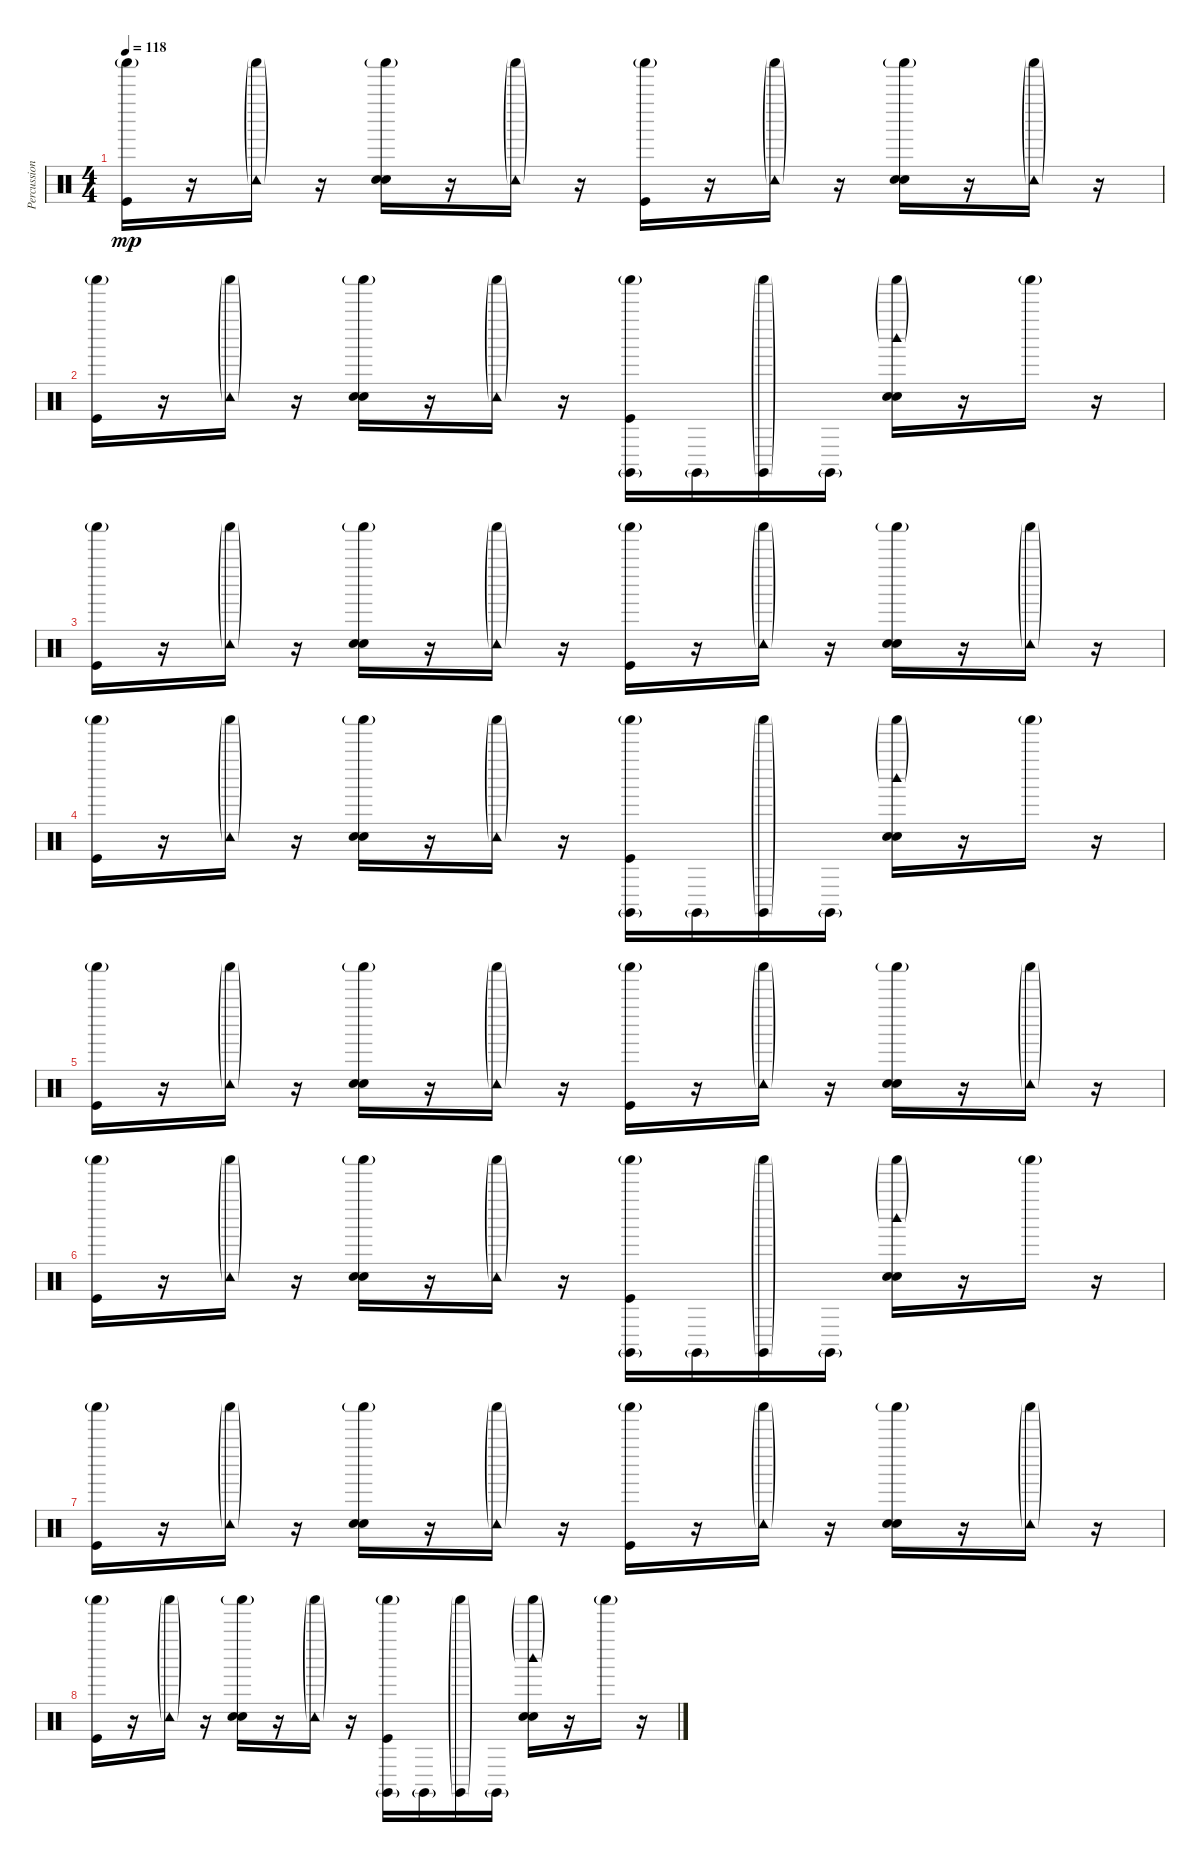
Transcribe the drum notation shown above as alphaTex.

\track ("Percussion" "Percussion") {instrument percussion}
\staff {score}
\articulation defaults
\ts (4 4)
\tempo 118
\clef neutral
\ks c
("Shaker (hit)"{g} "Kick (hit)").16{dy mp} r.16 ("Shaker (hit)"{g} "Tambourine (hit)"{g}).16 r.16 ("Shaker (hit)"{g} "Hand Clap (hit)" "Snare (hit) 2").16 r.16 ("Shaker (hit)"{g} "Tambourine (hit)"{g}).16 r.16 ("Shaker (hit)"{g} "Kick (hit)").16 r.16 ("Shaker (hit)"{g} "Tambourine (hit)"{g}).16 r.16 ("Shaker (hit)"{g} "Hand Clap (hit)" "Snare (hit) 2").16 r.16 ("Shaker (hit)"{g} "Tambourine (hit)"{g}).16 r.16 |
("Shaker (hit)"{g} "Kick (hit)").16 r.16 ("Shaker (hit)"{g} "Tambourine (hit)"{g}).16 r.16 ("Shaker (hit)"{g} "Hand Clap (hit)" "Snare (hit) 2").16 r.16 ("Shaker (hit)"{g} "Tambourine (hit)"{g}).16 r.16 ("Shaker (hit)"{g} "Claves (hit)"{g} "Kick (hit)").16 "Claves (hit)"{g}.16 ("Shaker (hit)"{g} "Claves (hit)"{g}).16 "Claves (hit)"{g}.16 ("Shaker (hit)"{g} "Woodblock high (hit)"{g} "Hand Clap (hit)" "Snare (hit) 2").16 r.16 "Shaker (hit)"{g}.16 r.16 |
("Shaker (hit)"{g} "Kick (hit)").16 r.16 ("Shaker (hit)"{g} "Tambourine (hit)"{g}).16 r.16 ("Shaker (hit)"{g} "Hand Clap (hit)" "Snare (hit) 2").16 r.16 ("Shaker (hit)"{g} "Tambourine (hit)"{g}).16 r.16 ("Shaker (hit)"{g} "Kick (hit)").16 r.16 ("Shaker (hit)"{g} "Tambourine (hit)"{g}).16 r.16 ("Shaker (hit)"{g} "Hand Clap (hit)" "Snare (hit) 2").16 r.16 ("Shaker (hit)"{g} "Tambourine (hit)"{g}).16 r.16 |
("Shaker (hit)"{g} "Kick (hit)").16 r.16 ("Shaker (hit)"{g} "Tambourine (hit)"{g}).16 r.16 ("Shaker (hit)"{g} "Hand Clap (hit)" "Snare (hit) 2").16 r.16 ("Shaker (hit)"{g} "Tambourine (hit)"{g}).16 r.16 ("Shaker (hit)"{g} "Claves (hit)"{g} "Kick (hit)").16 "Claves (hit)"{g}.16 ("Shaker (hit)"{g} "Claves (hit)"{g}).16 "Claves (hit)"{g}.16 ("Shaker (hit)"{g} "Woodblock high (hit)"{g} "Hand Clap (hit)" "Snare (hit) 2").16 r.16 "Shaker (hit)"{g}.16 r.16 |
("Shaker (hit)"{g} "Kick (hit)").16 r.16 ("Shaker (hit)"{g} "Tambourine (hit)"{g}).16 r.16 ("Shaker (hit)"{g} "Hand Clap (hit)" "Snare (hit) 2").16 r.16 ("Shaker (hit)"{g} "Tambourine (hit)"{g}).16 r.16 ("Shaker (hit)"{g} "Kick (hit)").16 r.16 ("Shaker (hit)"{g} "Tambourine (hit)"{g}).16 r.16 ("Shaker (hit)"{g} "Hand Clap (hit)" "Snare (hit) 2").16 r.16 ("Shaker (hit)"{g} "Tambourine (hit)"{g}).16 r.16 |
("Shaker (hit)"{g} "Kick (hit)").16 r.16 ("Shaker (hit)"{g} "Tambourine (hit)"{g}).16 r.16 ("Shaker (hit)"{g} "Hand Clap (hit)" "Snare (hit) 2").16 r.16 ("Shaker (hit)"{g} "Tambourine (hit)"{g}).16 r.16 ("Shaker (hit)"{g} "Claves (hit)"{g} "Kick (hit)").16 "Claves (hit)"{g}.16 ("Shaker (hit)"{g} "Claves (hit)"{g}).16 "Claves (hit)"{g}.16 ("Shaker (hit)"{g} "Woodblock high (hit)"{g} "Hand Clap (hit)" "Snare (hit) 2").16 r.16 "Shaker (hit)"{g}.16 r.16 |
("Shaker (hit)"{g} "Kick (hit)").16 r.16 ("Shaker (hit)"{g} "Tambourine (hit)"{g}).16 r.16 ("Shaker (hit)"{g} "Hand Clap (hit)" "Snare (hit) 2").16 r.16 ("Shaker (hit)"{g} "Tambourine (hit)"{g}).16 r.16 ("Shaker (hit)"{g} "Kick (hit)").16 r.16 ("Shaker (hit)"{g} "Tambourine (hit)"{g}).16 r.16 ("Shaker (hit)"{g} "Hand Clap (hit)" "Snare (hit) 2").16 r.16 ("Shaker (hit)"{g} "Tambourine (hit)"{g}).16 r.16 |
("Shaker (hit)"{g} "Kick (hit)").16 r.16 ("Shaker (hit)"{g} "Tambourine (hit)"{g}).16 r.16 ("Shaker (hit)"{g} "Hand Clap (hit)" "Snare (hit) 2").16 r.16 ("Shaker (hit)"{g} "Tambourine (hit)"{g}).16 r.16 ("Shaker (hit)"{g} "Claves (hit)"{g} "Kick (hit)").16 "Claves (hit)"{g}.16 ("Shaker (hit)"{g} "Claves (hit)"{g}).16 "Claves (hit)"{g}.16 ("Shaker (hit)"{g} "Woodblock high (hit)"{g} "Hand Clap (hit)" "Snare (hit) 2").16 r.16 "Shaker (hit)"{g}.16 r.16
